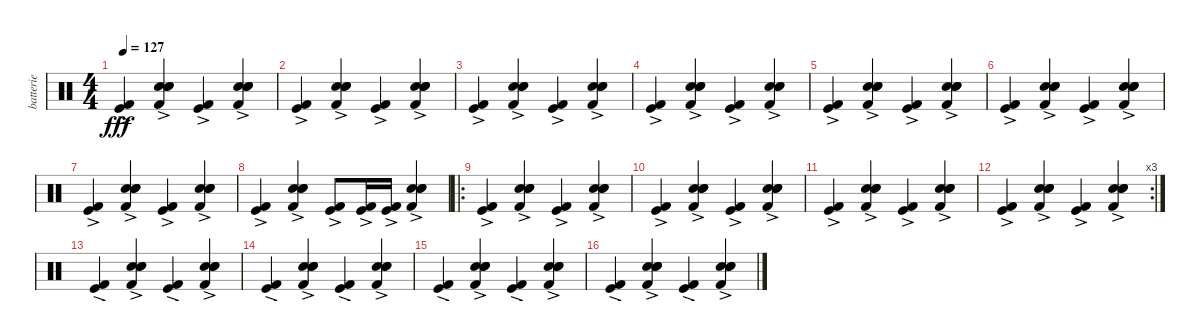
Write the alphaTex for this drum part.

\track ("batterie" "batterie") {instrument percussion}
\staff {score}
\articulation defaults
\ts (4 4)
\tempo 127
\clef neutral
\ks c
("Kick (hit) 2" "Kick (hit)"{ac}).4{dy fff} ("Hand Clap (hit)"{ac} "Kick (hit) 2" "Electric Snare (hit)" "Snare (hit) 2").4 ("Kick (hit) 2" "Kick (hit)"{ac}).4 ("Hand Clap (hit)"{ac} "Kick (hit) 2" "Electric Snare (hit)" "Snare (hit) 2").4 |
("Kick (hit) 2" "Kick (hit)"{ac}).4 ("Hand Clap (hit)"{ac} "Kick (hit) 2" "Electric Snare (hit)" "Snare (hit) 2").4 ("Kick (hit) 2" "Kick (hit)"{ac}).4 ("Hand Clap (hit)"{ac} "Kick (hit) 2" "Electric Snare (hit)" "Snare (hit) 2").4 |
("Kick (hit) 2" "Kick (hit)"{ac}).4 ("Hand Clap (hit)"{ac} "Kick (hit) 2" "Electric Snare (hit)" "Snare (hit) 2").4 ("Kick (hit) 2" "Kick (hit)"{ac}).4 ("Hand Clap (hit)"{ac} "Kick (hit) 2" "Electric Snare (hit)" "Snare (hit) 2").4 |
("Kick (hit) 2" "Kick (hit)"{ac}).4 ("Hand Clap (hit)"{ac} "Kick (hit) 2" "Electric Snare (hit)" "Snare (hit) 2").4 ("Kick (hit) 2" "Kick (hit)"{ac}).4 ("Hand Clap (hit)"{ac} "Kick (hit) 2" "Electric Snare (hit)" "Snare (hit) 2").4 |
("Kick (hit) 2" "Kick (hit)"{ac}).4 ("Hand Clap (hit)"{ac} "Kick (hit) 2" "Electric Snare (hit)" "Snare (hit) 2").4 ("Kick (hit) 2" "Kick (hit)"{ac}).4 ("Hand Clap (hit)"{ac} "Kick (hit) 2" "Electric Snare (hit)" "Snare (hit) 2").4 |
("Kick (hit) 2" "Kick (hit)"{ac}).4 ("Hand Clap (hit)"{ac} "Kick (hit) 2" "Electric Snare (hit)" "Snare (hit) 2").4 ("Kick (hit) 2" "Kick (hit)"{ac}).4 ("Hand Clap (hit)"{ac} "Kick (hit) 2" "Electric Snare (hit)" "Snare (hit) 2").4 |
("Kick (hit) 2" "Kick (hit)"{ac}).4 ("Hand Clap (hit)"{ac} "Kick (hit) 2" "Electric Snare (hit)" "Snare (hit) 2").4 ("Kick (hit) 2" "Kick (hit)"{ac}).4 ("Hand Clap (hit)"{ac} "Kick (hit) 2" "Electric Snare (hit)" "Snare (hit) 2").4 |
("Kick (hit) 2" "Kick (hit)"{ac}).4 ("Hand Clap (hit)"{ac} "Kick (hit) 2" "Electric Snare (hit)" "Snare (hit) 2").4 ("Kick (hit) 2" "Kick (hit)"{ac}).8 ("Kick (hit) 2" "Kick (hit)"{ac}).16 ("Kick (hit) 2" "Kick (hit)"{ac}).16 ("Hand Clap (hit)"{ac} "Kick (hit) 2" "Electric Snare (hit)" "Snare (hit) 2").4 |
\ro
("Kick (hit) 2" "Kick (hit)"{ac}).4 ("Hand Clap (hit)"{ac} "Kick (hit) 2" "Electric Snare (hit)" "Snare (hit) 2").4 ("Kick (hit) 2" "Kick (hit)"{ac}).4 ("Hand Clap (hit)"{ac} "Kick (hit) 2" "Electric Snare (hit)" "Snare (hit) 2").4 |
("Kick (hit) 2" "Kick (hit)"{ac}).4 ("Hand Clap (hit)"{ac} "Kick (hit) 2" "Electric Snare (hit)" "Snare (hit) 2").4 ("Kick (hit) 2" "Kick (hit)"{ac}).4 ("Hand Clap (hit)"{ac} "Kick (hit) 2" "Electric Snare (hit)" "Snare (hit) 2").4 |
("Kick (hit) 2" "Kick (hit)"{ac}).4 ("Hand Clap (hit)"{ac} "Kick (hit) 2" "Electric Snare (hit)" "Snare (hit) 2").4 ("Kick (hit) 2" "Kick (hit)"{ac}).4 ("Hand Clap (hit)"{ac} "Kick (hit) 2" "Electric Snare (hit)" "Snare (hit) 2").4 |
\rc 3
("Kick (hit) 2" "Kick (hit)"{ac}).4 ("Hand Clap (hit)"{ac} "Kick (hit) 2" "Electric Snare (hit)" "Snare (hit) 2").4 ("Kick (hit) 2" "Kick (hit)"{ac}).4 ("Hand Clap (hit)"{ac} "Kick (hit) 2" "Electric Snare (hit)" "Snare (hit) 2").4 |
("Kick (hit) 2" "Kick (hit)"{ac}).4 ("Hand Clap (hit)"{ac} "Kick (hit) 2" "Electric Snare (hit)" "Snare (hit) 2").4 ("Kick (hit) 2" "Kick (hit)"{ac}).4 ("Hand Clap (hit)"{ac} "Kick (hit) 2" "Electric Snare (hit)" "Snare (hit) 2").4 |
("Kick (hit) 2" "Kick (hit)"{ac}).4 ("Hand Clap (hit)"{ac} "Kick (hit) 2" "Electric Snare (hit)" "Snare (hit) 2").4 ("Kick (hit) 2" "Kick (hit)"{ac}).4 ("Hand Clap (hit)"{ac} "Kick (hit) 2" "Electric Snare (hit)" "Snare (hit) 2").4 |
("Kick (hit) 2" "Kick (hit)"{ac}).4 ("Hand Clap (hit)"{ac} "Kick (hit) 2" "Electric Snare (hit)" "Snare (hit) 2").4 ("Kick (hit) 2" "Kick (hit)"{ac}).4 ("Hand Clap (hit)"{ac} "Kick (hit) 2" "Electric Snare (hit)" "Snare (hit) 2").4 |
("Kick (hit) 2" "Kick (hit)"{ac}).4 ("Hand Clap (hit)"{ac} "Kick (hit) 2" "Electric Snare (hit)" "Snare (hit) 2").4 ("Kick (hit) 2" "Kick (hit)"{ac}).4 ("Hand Clap (hit)"{ac} "Kick (hit) 2" "Electric Snare (hit)" "Snare (hit) 2").4
